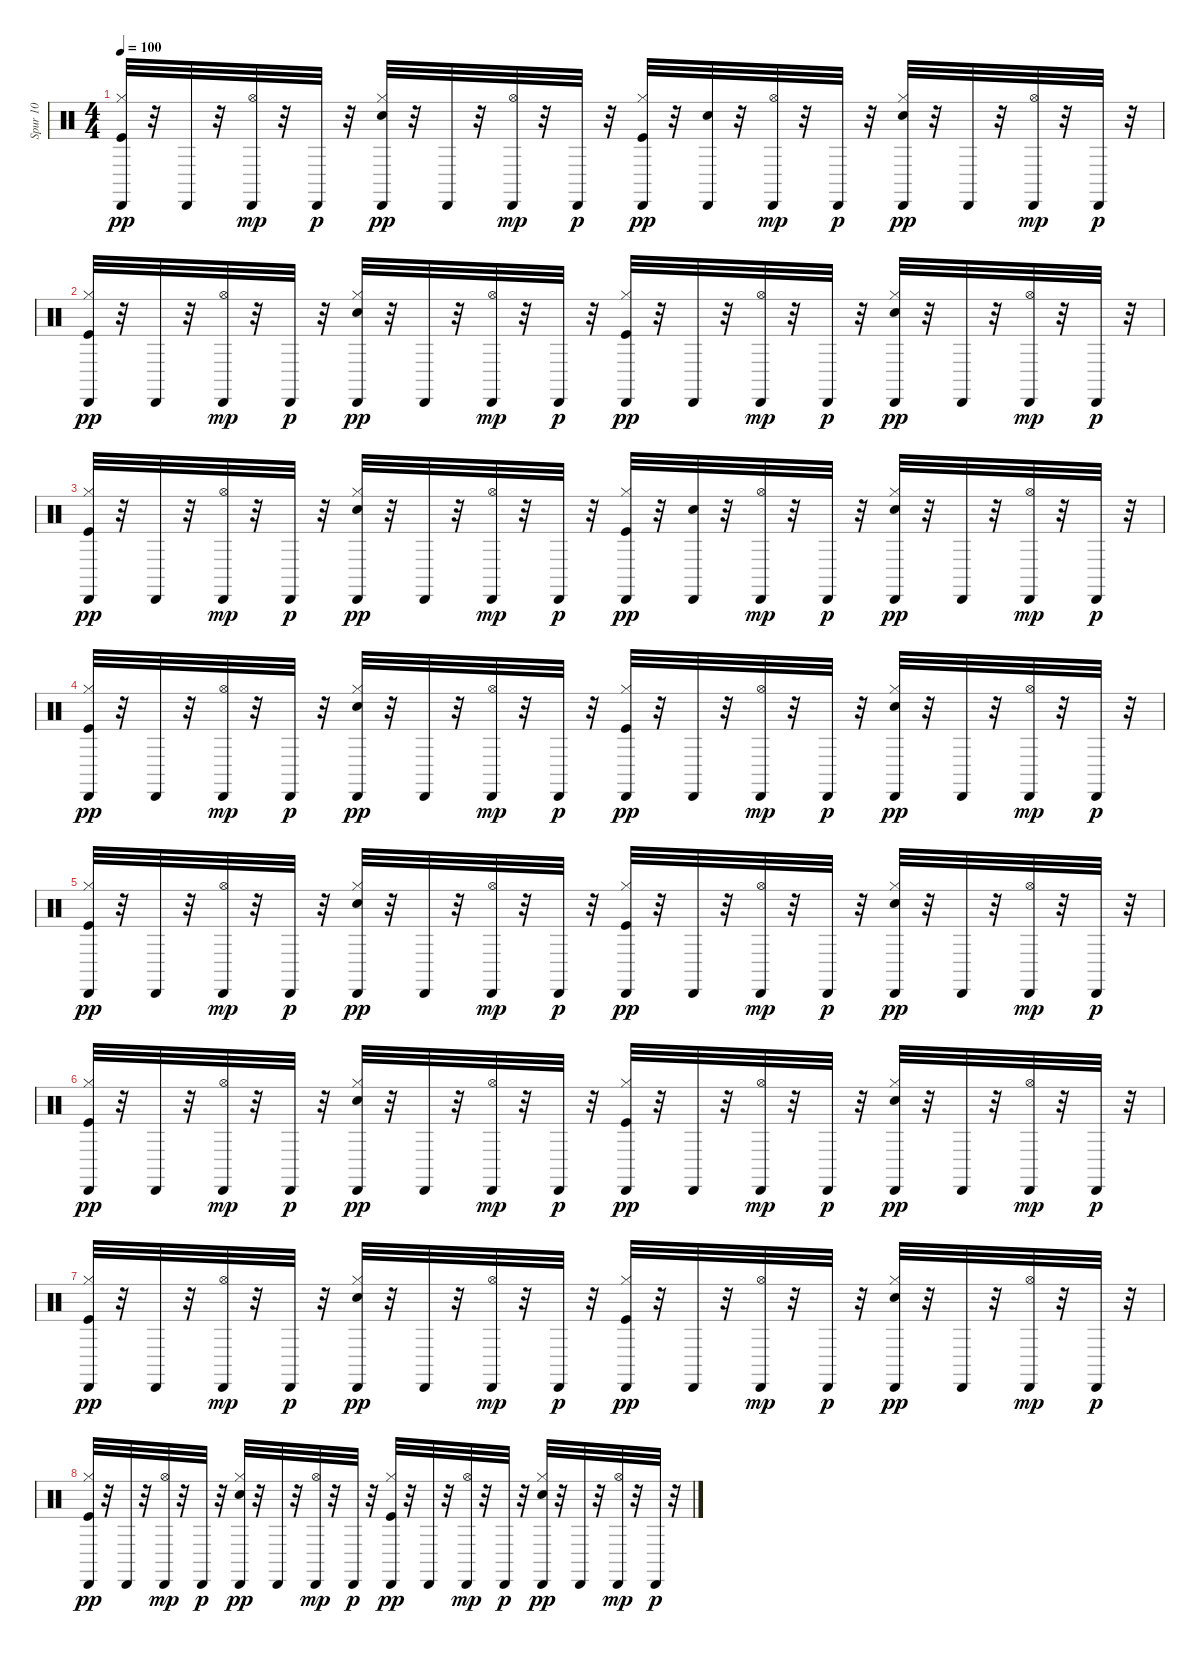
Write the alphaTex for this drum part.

\track ("Spur 10" "Spur 10") {instrument percussion}
\staff {score}
\articulation defaults
\ts (4 4)
\tempo 100
\clef neutral
\ks c
("Kick (hit)" "Hi-Hat (closed)" "Cabasa (hit)").32{dy pp} r.32 "Cabasa (hit)".32 r.32 ("Hi-Hat (open)" "Cabasa (hit)").32{dy mp} r.32 "Cabasa (hit)".32{dy p} r.32 ("Electric Snare (hit)" "Hi-Hat (closed)" "Cabasa (hit)").32{dy pp} r.32 "Cabasa (hit)".32 r.32 ("Hi-Hat (open)" "Cabasa (hit)").32{dy mp} r.32 "Cabasa (hit)".32{dy p} r.32 ("Kick (hit)" "Hi-Hat (closed)" "Cabasa (hit)").32{dy pp} r.32 ("Electric Snare (hit)" "Cabasa (hit)").32 r.32 ("Hi-Hat (open)" "Cabasa (hit)").32{dy mp} r.32 "Cabasa (hit)".32{dy p} r.32 ("Electric Snare (hit)" "Hi-Hat (closed)" "Cabasa (hit)").32{dy pp} r.32 "Cabasa (hit)".32 r.32 ("Hi-Hat (open)" "Cabasa (hit)").32{dy mp} r.32 "Cabasa (hit)".32{dy p} r.32 |
("Kick (hit)" "Hi-Hat (closed)" "Cabasa (hit)").32{dy pp} r.32 "Cabasa (hit)".32 r.32 ("Hi-Hat (open)" "Cabasa (hit)").32{dy mp} r.32 "Cabasa (hit)".32{dy p} r.32 ("Electric Snare (hit)" "Hi-Hat (closed)" "Cabasa (hit)").32{dy pp} r.32 "Cabasa (hit)".32 r.32 ("Hi-Hat (open)" "Cabasa (hit)").32{dy mp} r.32 "Cabasa (hit)".32{dy p} r.32 ("Kick (hit)" "Hi-Hat (closed)" "Cabasa (hit)").32{dy pp} r.32 "Cabasa (hit)".32 r.32 ("Hi-Hat (open)" "Cabasa (hit)").32{dy mp} r.32 "Cabasa (hit)".32{dy p} r.32 ("Electric Snare (hit)" "Hi-Hat (closed)" "Cabasa (hit)").32{dy pp} r.32 "Cabasa (hit)".32 r.32 ("Hi-Hat (open)" "Cabasa (hit)").32{dy mp} r.32 "Cabasa (hit)".32{dy p} r.32 |
("Kick (hit)" "Hi-Hat (closed)" "Cabasa (hit)").32{dy pp} r.32 "Cabasa (hit)".32 r.32 ("Hi-Hat (open)" "Cabasa (hit)").32{dy mp} r.32 "Cabasa (hit)".32{dy p} r.32 ("Electric Snare (hit)" "Hi-Hat (closed)" "Cabasa (hit)").32{dy pp} r.32 "Cabasa (hit)".32 r.32 ("Hi-Hat (open)" "Cabasa (hit)").32{dy mp} r.32 "Cabasa (hit)".32{dy p} r.32 ("Kick (hit)" "Hi-Hat (closed)" "Cabasa (hit)").32{dy pp} r.32 ("Electric Snare (hit)" "Cabasa (hit)").32 r.32 ("Hi-Hat (open)" "Cabasa (hit)").32{dy mp} r.32 "Cabasa (hit)".32{dy p} r.32 ("Electric Snare (hit)" "Hi-Hat (closed)" "Cabasa (hit)").32{dy pp} r.32 "Cabasa (hit)".32 r.32 ("Hi-Hat (open)" "Cabasa (hit)").32{dy mp} r.32 "Cabasa (hit)".32{dy p} r.32 |
("Kick (hit)" "Hi-Hat (closed)" "Cabasa (hit)").32{dy pp} r.32 "Cabasa (hit)".32 r.32 ("Hi-Hat (open)" "Cabasa (hit)").32{dy mp} r.32 "Cabasa (hit)".32{dy p} r.32 ("Electric Snare (hit)" "Hi-Hat (closed)" "Cabasa (hit)").32{dy pp} r.32 "Cabasa (hit)".32 r.32 ("Hi-Hat (open)" "Cabasa (hit)").32{dy mp} r.32 "Cabasa (hit)".32{dy p} r.32 ("Kick (hit)" "Hi-Hat (closed)" "Cabasa (hit)").32{dy pp} r.32 "Cabasa (hit)".32 r.32 ("Hi-Hat (open)" "Cabasa (hit)").32{dy mp} r.32 "Cabasa (hit)".32{dy p} r.32 ("Electric Snare (hit)" "Hi-Hat (closed)" "Cabasa (hit)").32{dy pp} r.32 "Cabasa (hit)".32 r.32 ("Hi-Hat (open)" "Cabasa (hit)").32{dy mp} r.32 "Cabasa (hit)".32{dy p} r.32 |
("Kick (hit)" "Hi-Hat (closed)" "Cabasa (hit)").32{dy pp} r.32 "Cabasa (hit)".32 r.32 ("Hi-Hat (open)" "Cabasa (hit)").32{dy mp} r.32 "Cabasa (hit)".32{dy p} r.32 ("Electric Snare (hit)" "Hi-Hat (closed)" "Cabasa (hit)").32{dy pp} r.32 "Cabasa (hit)".32 r.32 ("Hi-Hat (open)" "Cabasa (hit)").32{dy mp} r.32 "Cabasa (hit)".32{dy p} r.32 ("Kick (hit)" "Hi-Hat (closed)" "Cabasa (hit)").32{dy pp} r.32 "Cabasa (hit)".32 r.32 ("Hi-Hat (open)" "Cabasa (hit)").32{dy mp} r.32 "Cabasa (hit)".32{dy p} r.32 ("Electric Snare (hit)" "Hi-Hat (closed)" "Cabasa (hit)").32{dy pp} r.32 "Cabasa (hit)".32 r.32 ("Hi-Hat (open)" "Cabasa (hit)").32{dy mp} r.32 "Cabasa (hit)".32{dy p} r.32 |
("Kick (hit)" "Hi-Hat (closed)" "Cabasa (hit)").32{dy pp} r.32 "Cabasa (hit)".32 r.32 ("Hi-Hat (open)" "Cabasa (hit)").32{dy mp} r.32 "Cabasa (hit)".32{dy p} r.32 ("Electric Snare (hit)" "Hi-Hat (closed)" "Cabasa (hit)").32{dy pp} r.32 "Cabasa (hit)".32 r.32 ("Hi-Hat (open)" "Cabasa (hit)").32{dy mp} r.32 "Cabasa (hit)".32{dy p} r.32 ("Kick (hit)" "Hi-Hat (closed)" "Cabasa (hit)").32{dy pp} r.32 "Cabasa (hit)".32 r.32 ("Hi-Hat (open)" "Cabasa (hit)").32{dy mp} r.32 "Cabasa (hit)".32{dy p} r.32 ("Electric Snare (hit)" "Hi-Hat (closed)" "Cabasa (hit)").32{dy pp} r.32 "Cabasa (hit)".32 r.32 ("Hi-Hat (open)" "Cabasa (hit)").32{dy mp} r.32 "Cabasa (hit)".32{dy p} r.32 |
("Kick (hit)" "Hi-Hat (closed)" "Cabasa (hit)").32{dy pp} r.32 "Cabasa (hit)".32 r.32 ("Hi-Hat (open)" "Cabasa (hit)").32{dy mp} r.32 "Cabasa (hit)".32{dy p} r.32 ("Electric Snare (hit)" "Hi-Hat (closed)" "Cabasa (hit)").32{dy pp} r.32 "Cabasa (hit)".32 r.32 ("Hi-Hat (open)" "Cabasa (hit)").32{dy mp} r.32 "Cabasa (hit)".32{dy p} r.32 ("Kick (hit)" "Hi-Hat (closed)" "Cabasa (hit)").32{dy pp} r.32 "Cabasa (hit)".32 r.32 ("Hi-Hat (open)" "Cabasa (hit)").32{dy mp} r.32 "Cabasa (hit)".32{dy p} r.32 ("Electric Snare (hit)" "Hi-Hat (closed)" "Cabasa (hit)").32{dy pp} r.32 "Cabasa (hit)".32 r.32 ("Hi-Hat (open)" "Cabasa (hit)").32{dy mp} r.32 "Cabasa (hit)".32{dy p} r.32 |
("Kick (hit)" "Hi-Hat (closed)" "Cabasa (hit)").32{dy pp} r.32 "Cabasa (hit)".32 r.32 ("Hi-Hat (open)" "Cabasa (hit)").32{dy mp} r.32 "Cabasa (hit)".32{dy p} r.32 ("Electric Snare (hit)" "Hi-Hat (closed)" "Cabasa (hit)").32{dy pp} r.32 "Cabasa (hit)".32 r.32 ("Hi-Hat (open)" "Cabasa (hit)").32{dy mp} r.32 "Cabasa (hit)".32{dy p} r.32 ("Kick (hit)" "Hi-Hat (closed)" "Cabasa (hit)").32{dy pp} r.32 "Cabasa (hit)".32 r.32 ("Hi-Hat (open)" "Cabasa (hit)").32{dy mp} r.32 "Cabasa (hit)".32{dy p} r.32 ("Electric Snare (hit)" "Hi-Hat (closed)" "Cabasa (hit)").32{dy pp} r.32 "Cabasa (hit)".32 r.32 ("Hi-Hat (open)" "Cabasa (hit)").32{dy mp} r.32 "Cabasa (hit)".32{dy p} r.32
